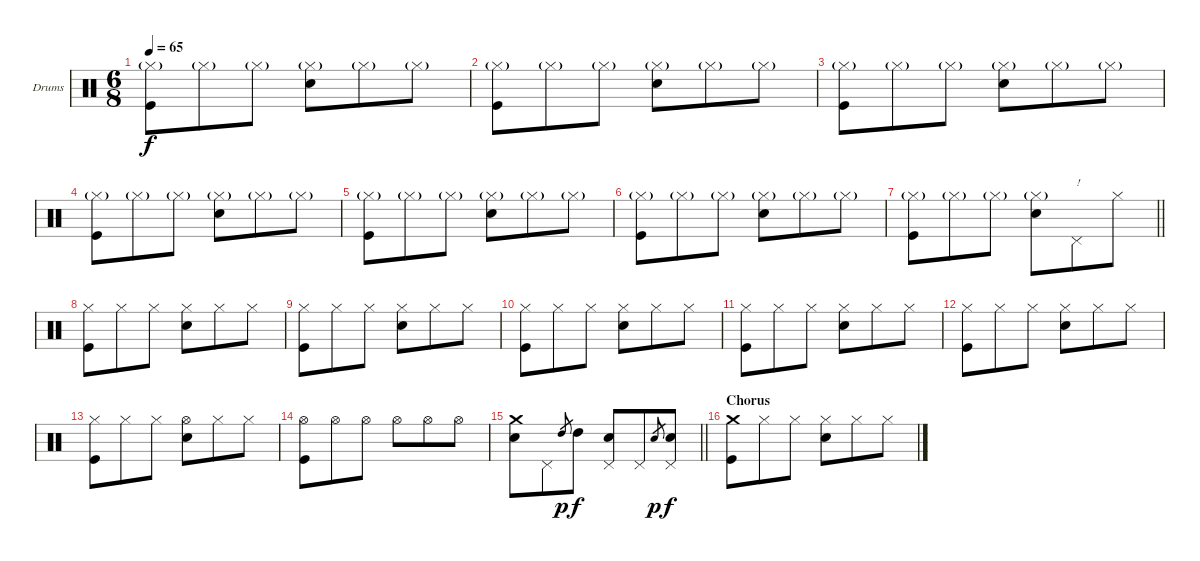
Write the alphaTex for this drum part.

\bracketExtendMode groupsimilarinstruments
\firstSystemTrackNameOrientation horizontal
\otherSystemsTrackNameOrientation horizontal
\track ("Drumkit" "Drums") {instrument percussion}
\staff {score}
\articulation defaults
\ts (6 8)
\tempo 65
\clef neutral
\ks c
("Hi-Hat (closed)"{g} "Kick (hit)").8{dy f} "Hi-Hat (closed)"{g}.8 "Hi-Hat (closed)"{g}.8 ("Hi-Hat (closed)"{g} "Snare (hit) 2").8 "Hi-Hat (closed)"{g}.8 "Hi-Hat (closed)"{g}.8 |
("Hi-Hat (closed)"{g} "Kick (hit)").8 "Hi-Hat (closed)"{g}.8 "Hi-Hat (closed)"{g}.8 ("Hi-Hat (closed)"{g} "Snare (hit) 2").8 "Hi-Hat (closed)"{g}.8 "Hi-Hat (closed)"{g}.8 |
("Hi-Hat (closed)"{g} "Kick (hit)").8 "Hi-Hat (closed)"{g}.8 "Hi-Hat (closed)"{g}.8 ("Hi-Hat (closed)"{g} "Snare (hit) 2").8 "Hi-Hat (closed)"{g}.8 "Hi-Hat (closed)"{g}.8 |
("Hi-Hat (closed)"{g} "Kick (hit)").8 "Hi-Hat (closed)"{g}.8 "Hi-Hat (closed)"{g}.8 ("Hi-Hat (closed)"{g} "Snare (hit) 2").8 "Hi-Hat (closed)"{g}.8 "Hi-Hat (closed)"{g}.8 |
("Hi-Hat (closed)"{g} "Kick (hit)").8 "Hi-Hat (closed)"{g}.8 "Hi-Hat (closed)"{g}.8 ("Hi-Hat (closed)"{g} "Snare (hit) 2").8 "Hi-Hat (closed)"{g}.8 "Hi-Hat (closed)"{g}.8 |
("Hi-Hat (closed)"{g} "Kick (hit)").8 "Hi-Hat (closed)"{g}.8 "Hi-Hat (closed)"{g}.8 ("Hi-Hat (closed)"{g} "Snare (hit) 2").8 "Hi-Hat (closed)"{g}.8 "Hi-Hat (closed)"{g}.8 |
\barLineRight lightlight
("Hi-Hat (closed)"{g} "Kick (hit)").8 "Hi-Hat (closed)"{g}.8 "Hi-Hat (closed)"{g}.8 ("Hi-Hat (closed)"{g} "Snare (hit) 2").8 "Pedal Hi-Hat (hit)".8{txt "!"} "Hi-Hat (closed)".8 |
\section ("" "")
("Hi-Hat (closed)" "Kick (hit)").8 "Hi-Hat (closed)".8 "Hi-Hat (closed)".8 ("Hi-Hat (closed)" "Snare (hit) 2").8 "Hi-Hat (closed)".8 "Hi-Hat (closed)".8 |
("Hi-Hat (closed)" "Kick (hit)").8 "Hi-Hat (closed)".8 "Hi-Hat (closed)".8 ("Hi-Hat (closed)" "Snare (hit) 2").8 "Hi-Hat (closed)".8 "Hi-Hat (closed)".8 |
("Hi-Hat (closed)" "Kick (hit)").8 "Hi-Hat (closed)".8 "Hi-Hat (closed)".8 ("Hi-Hat (closed)" "Snare (hit) 2").8 "Hi-Hat (closed)".8 "Hi-Hat (closed)".8 |
("Hi-Hat (closed)" "Kick (hit)").8 "Hi-Hat (closed)".8 "Hi-Hat (closed)".8 ("Hi-Hat (closed)" "Snare (hit) 2").8 "Hi-Hat (closed)".8 "Hi-Hat (closed)".8 |
("Hi-Hat (closed)" "Kick (hit)").8 "Hi-Hat (closed)".8 "Hi-Hat (closed)".8 ("Hi-Hat (closed)" "Snare (hit) 2").8 "Hi-Hat (closed)".8 "Hi-Hat (closed)".8 |
("Hi-Hat (closed)" "Kick (hit)").8 "Hi-Hat (closed)".8 "Hi-Hat (closed)".8 ("Hi-Hat (open)" "Snare (hit) 2").8 "Hi-Hat (closed)".8 "Hi-Hat (closed)".8 |
("Hi-Hat (open)" "Kick (hit)").8 "Hi-Hat (open)".8 "Hi-Hat (open)".8 "Hi-Hat (open)".8 "Hi-Hat (open)".8 "Hi-Hat (open)".8 |
\barLineRight lightlight
("Crash medium (hit)" "Snare (hit) 2").8 "Pedal Hi-Hat (hit)".8 "High Tom (hit)".8{gr dy p} "High Tom (hit)".8{dy f} ("Snare (hit) 2" "Pedal Hi-Hat (hit)").8 "Pedal Hi-Hat (hit)".8 "Snare (hit) 2".8{gr dy p} ("Snare (hit) 2" "Pedal Hi-Hat (hit)").8{dy f} |
\section ("" "Chorus")
("Crash medium (hit)" "Kick (hit)").8 "Hi-Hat (closed)".8 "Hi-Hat (closed)".8 ("Hi-Hat (closed)" "Snare (hit) 2").8 "Hi-Hat (closed)".8 "Hi-Hat (closed)".8
